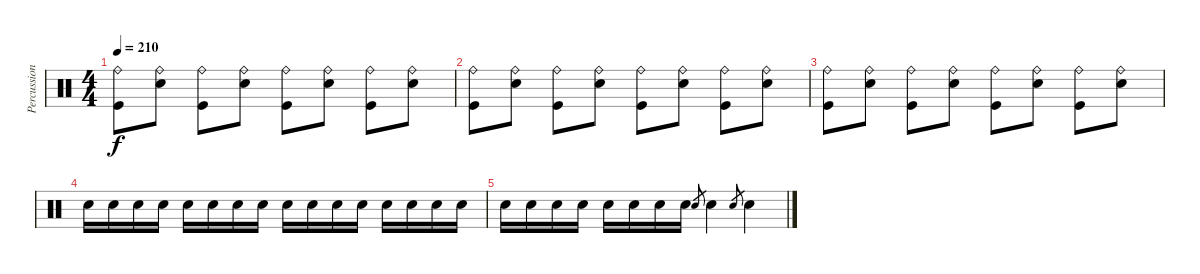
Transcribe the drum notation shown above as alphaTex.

\track ("Percussions" "Percussion") {instrument percussion}
\staff {score}
\articulation defaults
\ts (4 4)
\tempo 210
\clef neutral
\ks c
("Kick (hit)" "Ride (bell)").8{dy f} ("Electric Snare (hit)" "Ride (bell)").8 ("Kick (hit)" "Ride (bell)").8 ("Electric Snare (hit)" "Ride (bell)").8 ("Kick (hit)" "Ride (bell)").8 ("Electric Snare (hit)" "Ride (bell)").8 ("Kick (hit)" "Ride (bell)").8 ("Electric Snare (hit)" "Ride (bell)").8 |
("Kick (hit)" "Ride (bell)").8 ("Electric Snare (hit)" "Ride (bell)").8 ("Kick (hit)" "Ride (bell)").8 ("Electric Snare (hit)" "Ride (bell)").8 ("Kick (hit)" "Ride (bell)").8 ("Electric Snare (hit)" "Ride (bell)").8 ("Kick (hit)" "Ride (bell)").8 ("Electric Snare (hit)" "Ride (bell)").8 |
("Kick (hit)" "Ride (bell)").8 ("Electric Snare (hit)" "Ride (bell)").8 ("Kick (hit)" "Ride (bell)").8 ("Electric Snare (hit)" "Ride (bell)").8 ("Kick (hit)" "Ride (bell)").8 ("Electric Snare (hit)" "Ride (bell)").8 ("Kick (hit)" "Ride (bell)").8 ("Electric Snare (hit)" "Ride (bell)").8 |
"Electric Snare (hit)".16 "Electric Snare (hit)".16 "Electric Snare (hit)".16 "Electric Snare (hit)".16 "Electric Snare (hit)".16 "Electric Snare (hit)".16 "Electric Snare (hit)".16 "Electric Snare (hit)".16 "Electric Snare (hit)".16 "Electric Snare (hit)".16 "Electric Snare (hit)".16 "Electric Snare (hit)".16 "Electric Snare (hit)".16 "Electric Snare (hit)".16 "Electric Snare (hit)".16 "Electric Snare (hit)".16 |
"Electric Snare (hit)".16 "Electric Snare (hit)".16 "Electric Snare (hit)".16 "Electric Snare (hit)".16 "Electric Snare (hit)".16 "Electric Snare (hit)".16 "Electric Snare (hit)".16 "Electric Snare (hit)".16 "Electric Snare (hit)".8{gr} "Electric Snare (hit)".4 "Electric Snare (hit)".8{gr} "Electric Snare (hit)".4
